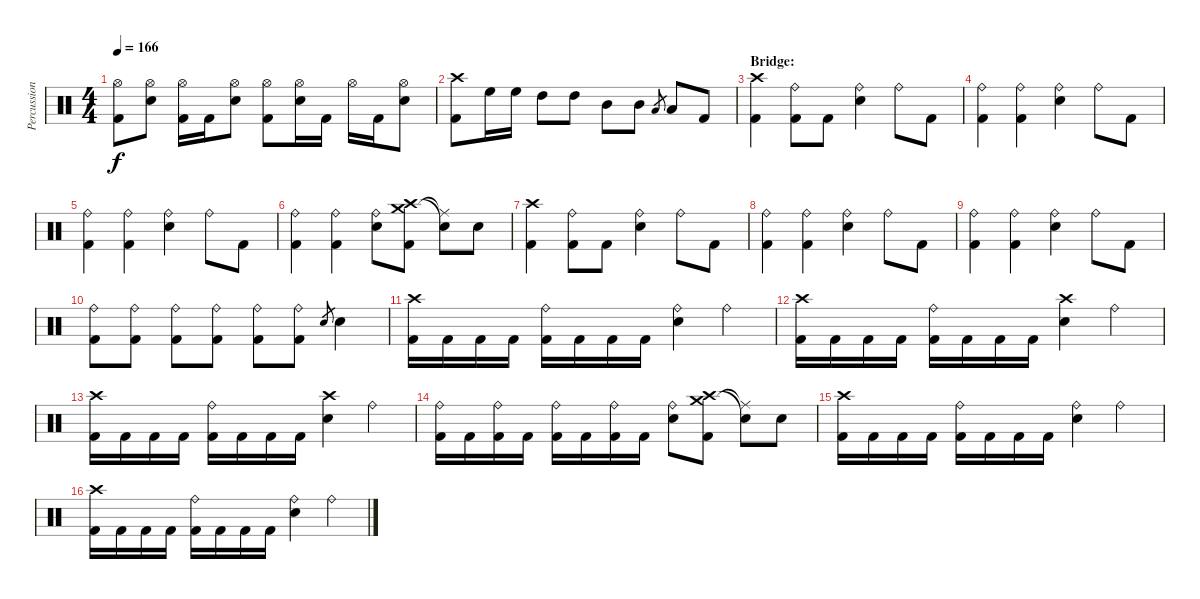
\track ("Percussion" "Percussion") {instrument percussion}
\staff {score}
\articulation defaults
\ts (4 4)
\tempo 166
\clef neutral
\ks c
("Hi-Hat (open)" "Kick (hit) 2").8{dy f} ("Hi-Hat (open)" "Electric Snare (hit)").8 ("Hi-Hat (open)" "Kick (hit) 2").16 "Kick (hit) 2".16 ("Hi-Hat (open)" "Electric Snare (hit)").8 ("Hi-Hat (open)" "Kick (hit) 2").8 ("Hi-Hat (open)" "Electric Snare (hit)").16 "Kick (hit) 2".16 "Hi-Hat (open)".16 "Kick (hit) 2".16 ("Hi-Hat (open)" "Electric Snare (hit)").8 |
("Crash high (hit)" "Kick (hit) 2").8 "High Floor Tom (hit)".16 "High Floor Tom (hit)".16 "High Tom (hit)".8 "High Tom (hit)".8 "Mid Tom (hit)".8 "Mid Tom (hit)".8 "Low Tom (hit)".8{gr} "Low Tom (hit)".8 "Kick (hit) 2".8 |
\section ("" "Bridge:")
("Crash high (hit)" "Kick (hit) 2").4 ("Ride (bell)" "Kick (hit) 2").8 "Kick (hit) 2".8 ("Ride (bell)" "Electric Snare (hit)").4 "Ride (bell)".8 "Kick (hit) 2".8 |
("Ride (bell)" "Kick (hit) 2").4 ("Ride (bell)" "Kick (hit) 2").4 ("Ride (bell)" "Electric Snare (hit)").4 "Ride (bell)".8 "Kick (hit) 2".8 |
("Ride (bell)" "Kick (hit) 2").4 ("Ride (bell)" "Kick (hit) 2").4 ("Ride (bell)" "Electric Snare (hit)").4 "Ride (bell)".8 "Kick (hit) 2".8 |
("Ride (bell)" "Kick (hit) 2").4 ("Ride (bell)" "Kick (hit) 2").4 ("Ride (bell)" "Electric Snare (hit)").8 ("Crash medium (hit)" "Crash high (hit)" "Kick (hit) 2").8 ("Ride (middle)"{t} "Snare (hit)"{t}).8 "Electric Snare (hit)".8 |
("Crash high (hit)" "Kick (hit) 2").4 ("Ride (bell)" "Kick (hit) 2").8 "Kick (hit) 2".8 ("Ride (bell)" "Electric Snare (hit)").4 "Ride (bell)".8 "Kick (hit) 2".8 |
("Ride (bell)" "Kick (hit) 2").4 ("Ride (bell)" "Kick (hit) 2").4 ("Ride (bell)" "Electric Snare (hit)").4 "Ride (bell)".8 "Kick (hit) 2".8 |
("Ride (bell)" "Kick (hit) 2").4 ("Ride (bell)" "Kick (hit) 2").4 ("Ride (bell)" "Electric Snare (hit)").4 "Ride (bell)".8 "Kick (hit) 2".8 |
("Ride (bell)" "Kick (hit) 2").8 ("Ride (bell)" "Kick (hit) 2").8 ("Ride (bell)" "Kick (hit) 2").8 ("Ride (bell)" "Kick (hit) 2").8 ("Ride (bell)" "Kick (hit) 2").8 ("Ride (bell)" "Kick (hit) 2").8 "Electric Snare (hit)".8{gr} "Electric Snare (hit)".4 |
("Crash high (hit)" "Kick (hit) 2").16 "Kick (hit) 2".16 "Kick (hit) 2".16 "Kick (hit) 2".16 ("Ride (bell)" "Kick (hit) 2").16 "Kick (hit) 2".16 "Kick (hit) 2".16 "Kick (hit) 2".16 ("Ride (bell)" "Electric Snare (hit)").4 "Ride (bell)".4 |
("Crash high (hit)" "Kick (hit) 2").16 "Kick (hit) 2".16 "Kick (hit) 2".16 "Kick (hit) 2".16 ("Ride (bell)" "Kick (hit) 2").16 "Kick (hit) 2".16 "Kick (hit) 2".16 "Kick (hit) 2".16 ("Crash high (hit)" "Electric Snare (hit)").4 "Ride (bell)".4 |
("Crash high (hit)" "Kick (hit) 2").16 "Kick (hit) 2".16 "Kick (hit) 2".16 "Kick (hit) 2".16 ("Ride (bell)" "Kick (hit) 2").16 "Kick (hit) 2".16 "Kick (hit) 2".16 "Kick (hit) 2".16 ("Crash high (hit)" "Electric Snare (hit)").4 "Ride (bell)".4 |
("Ride (bell)" "Kick (hit) 2").16 "Kick (hit) 2".16 ("Ride (bell)" "Kick (hit) 2").16 "Kick (hit) 2".16 ("Ride (bell)" "Kick (hit) 2").16 "Kick (hit) 2".16 ("Ride (bell)" "Kick (hit) 2").16 "Kick (hit) 2".16 ("Ride (bell)" "Electric Snare (hit)").8 ("Crash medium (hit)" "Crash high (hit)" "Kick (hit) 2").8 ("Ride (middle)"{t} "Snare (hit)"{t}).8 "Electric Snare (hit)".8 |
("Crash high (hit)" "Kick (hit) 2").16 "Kick (hit) 2".16 "Kick (hit) 2".16 "Kick (hit) 2".16 ("Ride (bell)" "Kick (hit) 2").16 "Kick (hit) 2".16 "Kick (hit) 2".16 "Kick (hit) 2".16 ("Ride (bell)" "Electric Snare (hit)").4 "Ride (bell)".4 |
("Crash high (hit)" "Kick (hit) 2").16 "Kick (hit) 2".16 "Kick (hit) 2".16 "Kick (hit) 2".16 ("Ride (bell)" "Kick (hit) 2").16 "Kick (hit) 2".16 "Kick (hit) 2".16 "Kick (hit) 2".16 ("Ride (bell)" "Electric Snare (hit)").4 "Ride (bell)".4
